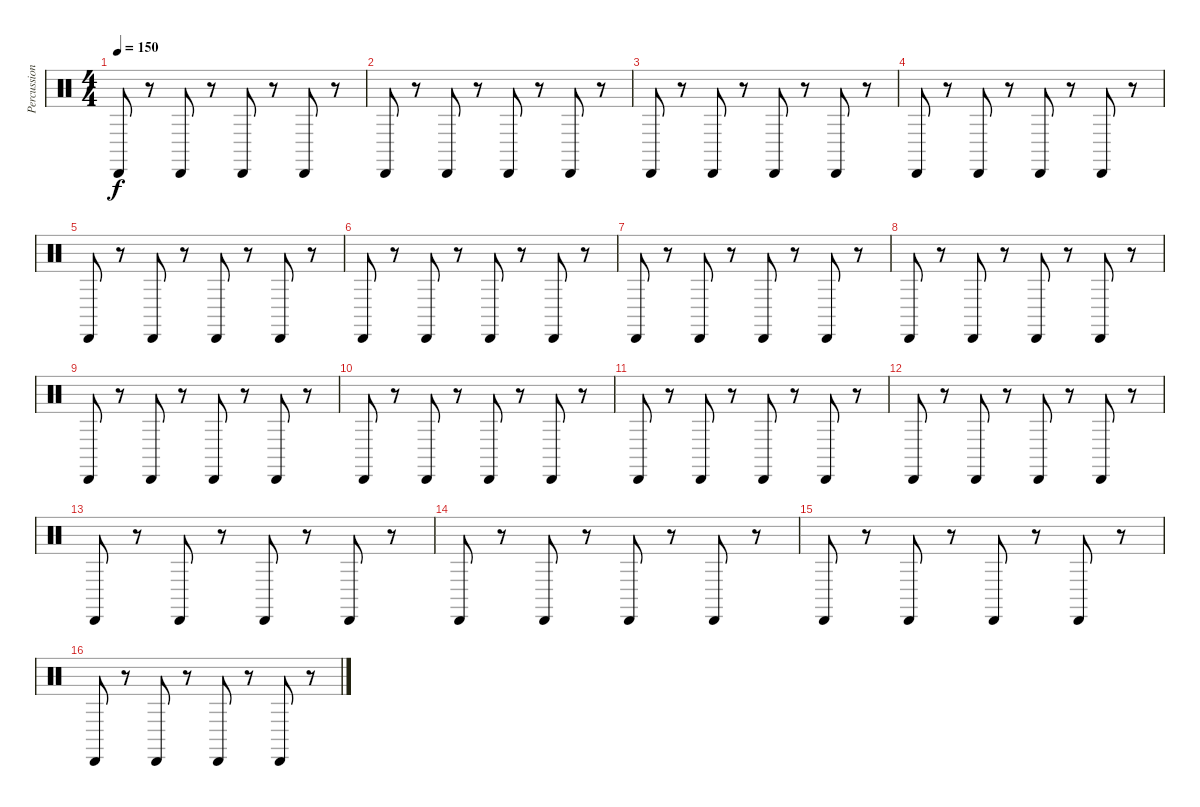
\track ("Percussion1" "Percussion") {instrument percussion}
\staff {score}
\articulation defaults
\ts (4 4)
\tempo 150
\clef neutral
\ks aminor "Cabasa (hit)".8{dy f}
r.8 "Cabasa (hit)".8 r.8 "Cabasa (hit)".8 r.8 "Cabasa (hit)".8 r.8 |
"Cabasa (hit)".8 r.8 "Cabasa (hit)".8 r.8 "Cabasa (hit)".8 r.8 "Cabasa (hit)".8 r.8 |
"Cabasa (hit)".8 r.8 "Cabasa (hit)".8 r.8 "Cabasa (hit)".8 r.8 "Cabasa (hit)".8 r.8 |
"Cabasa (hit)".8 r.8 "Cabasa (hit)".8 r.8 "Cabasa (hit)".8 r.8 "Cabasa (hit)".8 r.8 |
"Cabasa (hit)".8 r.8 "Cabasa (hit)".8 r.8 "Cabasa (hit)".8 r.8 "Cabasa (hit)".8 r.8 |
"Cabasa (hit)".8 r.8 "Cabasa (hit)".8 r.8 "Cabasa (hit)".8 r.8 "Cabasa (hit)".8 r.8 |
"Cabasa (hit)".8 r.8 "Cabasa (hit)".8 r.8 "Cabasa (hit)".8 r.8 "Cabasa (hit)".8 r.8 |
"Cabasa (hit)".8 r.8 "Cabasa (hit)".8 r.8 "Cabasa (hit)".8 r.8 "Cabasa (hit)".8 r.8 |
"Cabasa (hit)".8 r.8 "Cabasa (hit)".8 r.8 "Cabasa (hit)".8 r.8 "Cabasa (hit)".8 r.8 |
"Cabasa (hit)".8 r.8 "Cabasa (hit)".8 r.8 "Cabasa (hit)".8 r.8 "Cabasa (hit)".8 r.8 |
"Cabasa (hit)".8 r.8 "Cabasa (hit)".8 r.8 "Cabasa (hit)".8 r.8 "Cabasa (hit)".8 r.8 |
"Cabasa (hit)".8 r.8 "Cabasa (hit)".8 r.8 "Cabasa (hit)".8 r.8 "Cabasa (hit)".8 r.8 |
"Cabasa (hit)".8 r.8 "Cabasa (hit)".8 r.8 "Cabasa (hit)".8 r.8 "Cabasa (hit)".8 r.8 |
"Cabasa (hit)".8 r.8 "Cabasa (hit)".8 r.8 "Cabasa (hit)".8 r.8 "Cabasa (hit)".8 r.8 |
"Cabasa (hit)".8 r.8 "Cabasa (hit)".8 r.8 "Cabasa (hit)".8 r.8 "Cabasa (hit)".8 r.8 |
"Cabasa (hit)".8 r.8 "Cabasa (hit)".8 r.8 "Cabasa (hit)".8 r.8 "Cabasa (hit)".8 r.8
